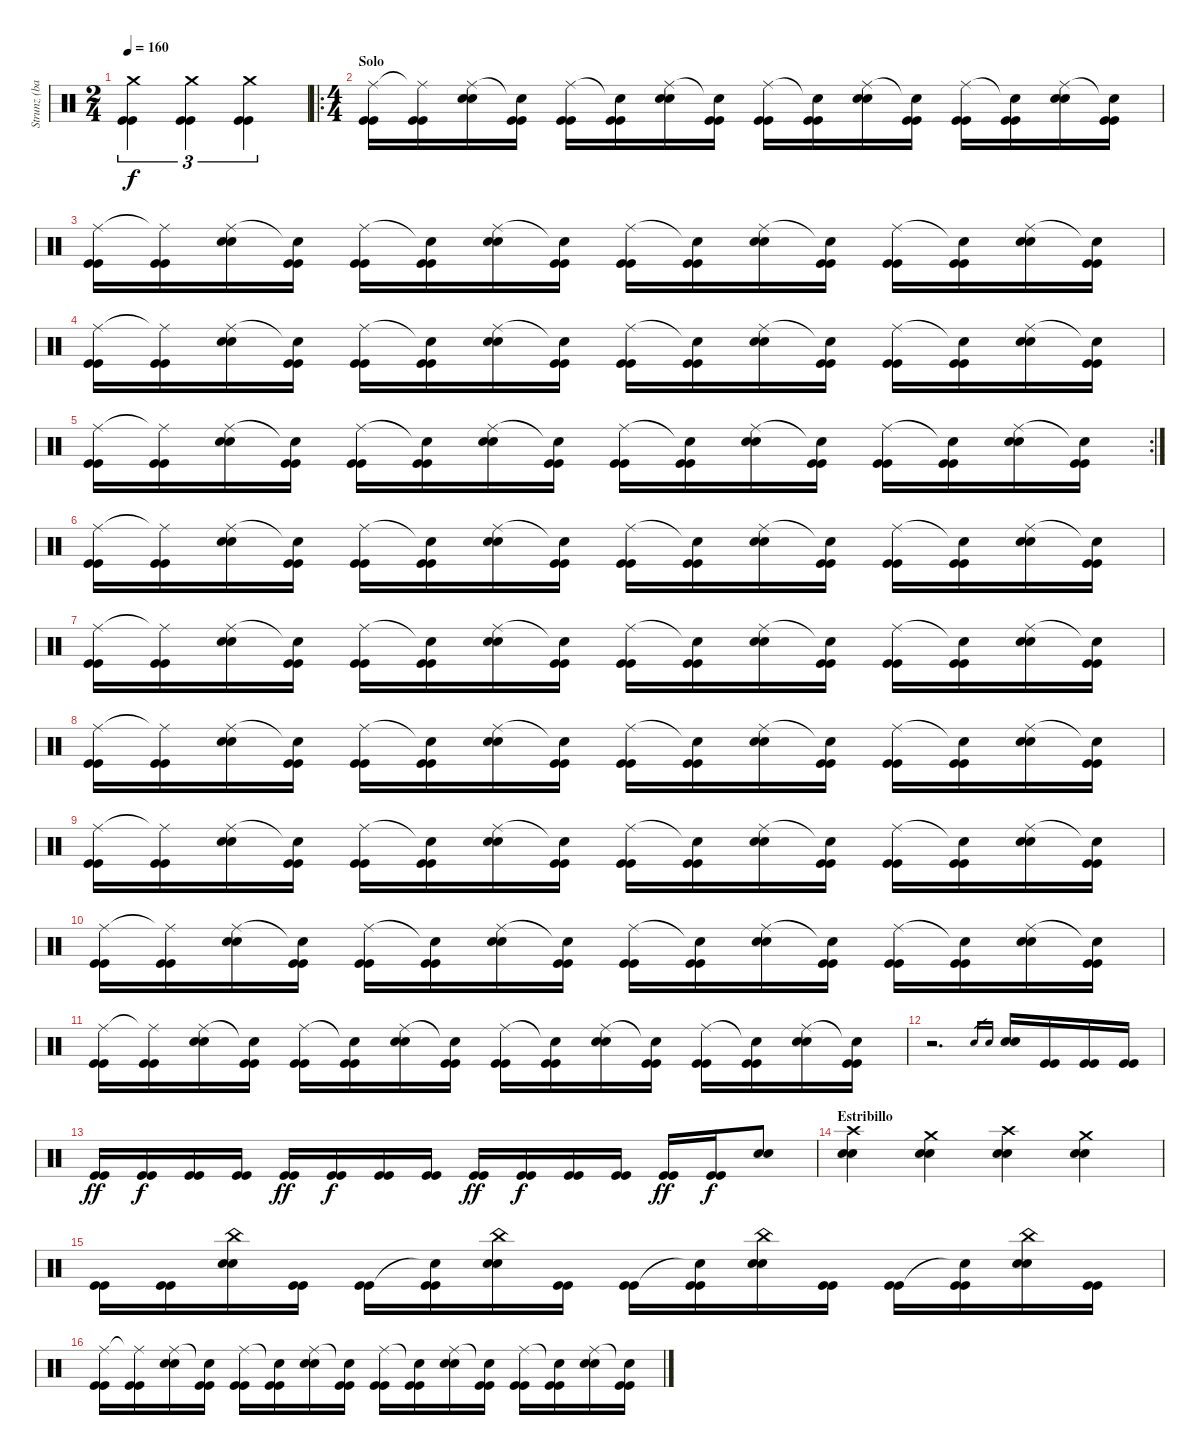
\track ("Strunz (bateria)" "Strunz (ba") {instrument percussion}
\staff {score}
\articulation defaults
\ts (2 4)
\tempo 160
\clef neutral
\ks c
("Crash medium (hit)" "Kick (hit)" "Kick (hit)").4{tu (3 2) dy f} ("Crash medium (hit)" "Kick (hit)" "Kick (hit)").4{tu (3 2)} ("Crash medium (hit)" "Kick (hit)" "Kick (hit)").4{tu (3 2)} |
\ro
\ts (4 4)
\section ("" "Solo")
("Ride (middle)" "Kick (hit)" "Kick (hit)").16 ("Ride (middle)"{t} "Kick (hit)" "Kick (hit)").16 ("Ride (middle)" "Snare (hit) 2" "Snare (hit) 2").16 ("Snare (hit)"{t} "Kick (hit)" "Kick (hit)").16 ("Ride (middle)" "Kick (hit)" "Kick (hit)").16 ("Snare (hit)"{t} "Kick (hit)" "Kick (hit)").16 ("Ride (middle)" "Snare (hit) 2" "Snare (hit) 2").16 ("Snare (hit)"{t} "Kick (hit)" "Kick (hit)").16 ("Ride (middle)" "Kick (hit)" "Kick (hit)").16 ("Snare (hit)"{t} "Kick (hit)" "Kick (hit)").16 ("Ride (middle)" "Snare (hit) 2" "Snare (hit) 2").16 ("Snare (hit)"{t} "Kick (hit)" "Kick (hit)").16 ("Ride (middle)" "Kick (hit)" "Kick (hit)").16 ("Snare (hit)"{t} "Kick (hit)" "Kick (hit)").16 ("Ride (middle)" "Snare (hit) 2" "Snare (hit) 2").16 ("Snare (hit)"{t} "Kick (hit)" "Kick (hit)").16 |
("Ride (middle)" "Kick (hit)" "Kick (hit)").16 ("Ride (middle)"{t} "Kick (hit)" "Kick (hit)").16 ("Ride (middle)" "Snare (hit) 2" "Snare (hit) 2").16 ("Snare (hit)"{t} "Kick (hit)" "Kick (hit)").16 ("Ride (middle)" "Kick (hit)" "Kick (hit)").16 ("Snare (hit)"{t} "Kick (hit)" "Kick (hit)").16 ("Ride (middle)" "Snare (hit) 2" "Snare (hit) 2").16 ("Snare (hit)"{t} "Kick (hit)" "Kick (hit)").16 ("Ride (middle)" "Kick (hit)" "Kick (hit)").16 ("Snare (hit)"{t} "Kick (hit)" "Kick (hit)").16 ("Ride (middle)" "Snare (hit) 2" "Snare (hit) 2").16 ("Snare (hit)"{t} "Kick (hit)" "Kick (hit)").16 ("Ride (middle)" "Kick (hit)" "Kick (hit)").16 ("Snare (hit)"{t} "Kick (hit)" "Kick (hit)").16 ("Ride (middle)" "Snare (hit) 2" "Snare (hit) 2").16 ("Snare (hit)"{t} "Kick (hit)" "Kick (hit)").16 |
("Ride (middle)" "Kick (hit)" "Kick (hit)").16 ("Ride (middle)"{t} "Kick (hit)" "Kick (hit)").16 ("Ride (middle)" "Snare (hit) 2" "Snare (hit) 2").16 ("Snare (hit)"{t} "Kick (hit)" "Kick (hit)").16 ("Ride (middle)" "Kick (hit)" "Kick (hit)").16 ("Snare (hit)"{t} "Kick (hit)" "Kick (hit)").16 ("Ride (middle)" "Snare (hit) 2" "Snare (hit) 2").16 ("Snare (hit)"{t} "Kick (hit)" "Kick (hit)").16 ("Ride (middle)" "Kick (hit)" "Kick (hit)").16 ("Snare (hit)"{t} "Kick (hit)" "Kick (hit)").16 ("Ride (middle)" "Snare (hit) 2" "Snare (hit) 2").16 ("Snare (hit)"{t} "Kick (hit)" "Kick (hit)").16 ("Ride (middle)" "Kick (hit)" "Kick (hit)").16 ("Snare (hit)"{t} "Kick (hit)" "Kick (hit)").16 ("Ride (middle)" "Snare (hit) 2" "Snare (hit) 2").16 ("Snare (hit)"{t} "Kick (hit)" "Kick (hit)").16 |
\rc 2
("Ride (middle)" "Kick (hit)" "Kick (hit)").16 ("Ride (middle)"{t} "Kick (hit)" "Kick (hit)").16 ("Ride (middle)" "Snare (hit) 2" "Snare (hit) 2").16 ("Snare (hit)"{t} "Kick (hit)" "Kick (hit)").16 ("Ride (middle)" "Kick (hit)" "Kick (hit)").16 ("Snare (hit)"{t} "Kick (hit)" "Kick (hit)").16 ("Ride (middle)" "Snare (hit) 2" "Snare (hit) 2").16 ("Snare (hit)"{t} "Kick (hit)" "Kick (hit)").16 ("Ride (middle)" "Kick (hit)" "Kick (hit)").16 ("Snare (hit)"{t} "Kick (hit)" "Kick (hit)").16 ("Ride (middle)" "Snare (hit) 2" "Snare (hit) 2").16 ("Snare (hit)"{t} "Kick (hit)" "Kick (hit)").16 ("Ride (middle)" "Kick (hit)" "Kick (hit)").16 ("Snare (hit)"{t} "Kick (hit)" "Kick (hit)").16 ("Ride (middle)" "Snare (hit) 2" "Snare (hit) 2").16 ("Snare (hit)"{t} "Kick (hit)" "Kick (hit)").16 |
("Ride (middle)" "Kick (hit)" "Kick (hit)").16 ("Ride (middle)"{t} "Kick (hit)" "Kick (hit)").16 ("Ride (middle)" "Snare (hit) 2" "Snare (hit) 2").16 ("Snare (hit)"{t} "Kick (hit)" "Kick (hit)").16 ("Ride (middle)" "Kick (hit)" "Kick (hit)").16 ("Snare (hit)"{t} "Kick (hit)" "Kick (hit)").16 ("Ride (middle)" "Snare (hit) 2" "Snare (hit) 2").16 ("Snare (hit)"{t} "Kick (hit)" "Kick (hit)").16 ("Ride (middle)" "Kick (hit)" "Kick (hit)").16 ("Snare (hit)"{t} "Kick (hit)" "Kick (hit)").16 ("Ride (middle)" "Snare (hit) 2" "Snare (hit) 2").16 ("Snare (hit)"{t} "Kick (hit)" "Kick (hit)").16 ("Ride (middle)" "Kick (hit)" "Kick (hit)").16 ("Snare (hit)"{t} "Kick (hit)" "Kick (hit)").16 ("Ride (middle)" "Snare (hit) 2" "Snare (hit) 2").16 ("Snare (hit)"{t} "Kick (hit)" "Kick (hit)").16 |
("Ride (middle)" "Kick (hit)" "Kick (hit)").16 ("Ride (middle)"{t} "Kick (hit)" "Kick (hit)").16 ("Ride (middle)" "Snare (hit) 2" "Snare (hit) 2").16 ("Snare (hit)"{t} "Kick (hit)" "Kick (hit)").16 ("Ride (middle)" "Kick (hit)" "Kick (hit)").16 ("Snare (hit)"{t} "Kick (hit)" "Kick (hit)").16 ("Ride (middle)" "Snare (hit) 2" "Snare (hit) 2").16 ("Snare (hit)"{t} "Kick (hit)" "Kick (hit)").16 ("Ride (middle)" "Kick (hit)" "Kick (hit)").16 ("Snare (hit)"{t} "Kick (hit)" "Kick (hit)").16 ("Ride (middle)" "Snare (hit) 2" "Snare (hit) 2").16 ("Snare (hit)"{t} "Kick (hit)" "Kick (hit)").16 ("Ride (middle)" "Kick (hit)" "Kick (hit)").16 ("Snare (hit)"{t} "Kick (hit)" "Kick (hit)").16 ("Ride (middle)" "Snare (hit) 2" "Snare (hit) 2").16 ("Snare (hit)"{t} "Kick (hit)" "Kick (hit)").16 |
("Ride (middle)" "Kick (hit)" "Kick (hit)").16 ("Ride (middle)"{t} "Kick (hit)" "Kick (hit)").16 ("Ride (middle)" "Snare (hit) 2" "Snare (hit) 2").16 ("Snare (hit)"{t} "Kick (hit)" "Kick (hit)").16 ("Ride (middle)" "Kick (hit)" "Kick (hit)").16 ("Snare (hit)"{t} "Kick (hit)" "Kick (hit)").16 ("Ride (middle)" "Snare (hit) 2" "Snare (hit) 2").16 ("Snare (hit)"{t} "Kick (hit)" "Kick (hit)").16 ("Ride (middle)" "Kick (hit)" "Kick (hit)").16 ("Snare (hit)"{t} "Kick (hit)" "Kick (hit)").16 ("Ride (middle)" "Snare (hit) 2" "Snare (hit) 2").16 ("Snare (hit)"{t} "Kick (hit)" "Kick (hit)").16 ("Ride (middle)" "Kick (hit)" "Kick (hit)").16 ("Snare (hit)"{t} "Kick (hit)" "Kick (hit)").16 ("Ride (middle)" "Snare (hit) 2" "Snare (hit) 2").16 ("Snare (hit)"{t} "Kick (hit)" "Kick (hit)").16 |
("Ride (middle)" "Kick (hit)" "Kick (hit)").16 ("Ride (middle)"{t} "Kick (hit)" "Kick (hit)").16 ("Ride (middle)" "Snare (hit) 2" "Snare (hit) 2").16 ("Snare (hit)"{t} "Kick (hit)" "Kick (hit)").16 ("Ride (middle)" "Kick (hit)" "Kick (hit)").16 ("Snare (hit)"{t} "Kick (hit)" "Kick (hit)").16 ("Ride (middle)" "Snare (hit) 2" "Snare (hit) 2").16 ("Snare (hit)"{t} "Kick (hit)" "Kick (hit)").16 ("Ride (middle)" "Kick (hit)" "Kick (hit)").16 ("Snare (hit)"{t} "Kick (hit)" "Kick (hit)").16 ("Ride (middle)" "Snare (hit) 2" "Snare (hit) 2").16 ("Snare (hit)"{t} "Kick (hit)" "Kick (hit)").16 ("Ride (middle)" "Kick (hit)" "Kick (hit)").16 ("Snare (hit)"{t} "Kick (hit)" "Kick (hit)").16 ("Ride (middle)" "Snare (hit) 2" "Snare (hit) 2").16 ("Snare (hit)"{t} "Kick (hit)" "Kick (hit)").16 |
("Ride (middle)" "Kick (hit)" "Kick (hit)").16 ("Ride (middle)"{t} "Kick (hit)" "Kick (hit)").16 ("Ride (middle)" "Snare (hit) 2" "Snare (hit) 2").16 ("Snare (hit)"{t} "Kick (hit)" "Kick (hit)").16 ("Ride (middle)" "Kick (hit)" "Kick (hit)").16 ("Snare (hit)"{t} "Kick (hit)" "Kick (hit)").16 ("Ride (middle)" "Snare (hit) 2" "Snare (hit) 2").16 ("Snare (hit)"{t} "Kick (hit)" "Kick (hit)").16 ("Ride (middle)" "Kick (hit)" "Kick (hit)").16 ("Snare (hit)"{t} "Kick (hit)" "Kick (hit)").16 ("Ride (middle)" "Snare (hit) 2" "Snare (hit) 2").16 ("Snare (hit)"{t} "Kick (hit)" "Kick (hit)").16 ("Ride (middle)" "Kick (hit)" "Kick (hit)").16 ("Snare (hit)"{t} "Kick (hit)" "Kick (hit)").16 ("Ride (middle)" "Snare (hit) 2" "Snare (hit) 2").16 ("Snare (hit)"{t} "Kick (hit)" "Kick (hit)").16 |
("Ride (middle)" "Kick (hit)" "Kick (hit)").16 ("Ride (middle)"{t} "Kick (hit)" "Kick (hit)").16 ("Ride (middle)" "Snare (hit) 2" "Snare (hit) 2").16 ("Snare (hit)"{t} "Kick (hit)" "Kick (hit)").16 ("Ride (middle)" "Kick (hit)" "Kick (hit)").16 ("Snare (hit)"{t} "Kick (hit)" "Kick (hit)").16 ("Ride (middle)" "Snare (hit) 2" "Snare (hit) 2").16 ("Snare (hit)"{t} "Kick (hit)" "Kick (hit)").16 ("Ride (middle)" "Kick (hit)" "Kick (hit)").16 ("Snare (hit)"{t} "Kick (hit)" "Kick (hit)").16 ("Ride (middle)" "Snare (hit) 2" "Snare (hit) 2").16 ("Snare (hit)"{t} "Kick (hit)" "Kick (hit)").16 ("Ride (middle)" "Kick (hit)" "Kick (hit)").16 ("Snare (hit)"{t} "Kick (hit)" "Kick (hit)").16 ("Ride (middle)" "Snare (hit) 2" "Snare (hit) 2").16 ("Snare (hit)"{t} "Kick (hit)" "Kick (hit)").16 |
r.2{d} "Snare (hit) 2".16{gr} "Snare (hit) 2".16{gr} ("Electric Snare (hit)" "Electric Snare (hit)").16 ("Kick (hit)" "Kick (hit)").16 ("Kick (hit)" "Kick (hit)").16 ("Kick (hit)" "Kick (hit)").16 |
("Kick (hit)" "Kick (hit)").16{dy ff} ("Kick (hit)" "Kick (hit)").16{dy f} ("Kick (hit)" "Kick (hit)").16 ("Kick (hit)" "Kick (hit)").16 ("Kick (hit)" "Kick (hit)").16{dy ff} ("Kick (hit)" "Kick (hit)").16{dy f} ("Kick (hit)" "Kick (hit)").16 ("Kick (hit)" "Kick (hit)").16 ("Kick (hit)" "Kick (hit)").16{dy ff} ("Kick (hit)" "Kick (hit)").16{dy f} ("Kick (hit)" "Kick (hit)").16 ("Kick (hit)" "Kick (hit)").16 ("Kick (hit)" "Kick (hit)").16{dy ff} ("Kick (hit)" "Kick (hit)").16{dy f} ("Snare (hit) 2" "Snare (hit) 2").8 |
\section ("" "Estribillo")
("Crash high (hit)" "Snare (hit) 2" "Snare (hit) 2").4 ("Crash medium (hit)" "Snare (hit) 2" "Snare (hit) 2").4 ("Crash high (hit)" "Snare (hit) 2" "Snare (hit) 2").4 ("Crash medium (hit)" "Snare (hit) 2" "Snare (hit) 2").4 |
("Kick (hit)" "Kick (hit)").16 ("Kick (hit)" "Kick (hit)").16 ("China (hit)" "Snare (hit) 2" "Snare (hit) 2").16 ("Kick (hit)" "Kick (hit)").16 ("Kick (hit)" "Kick (hit)").16 ("Snare (hit)"{t} "Kick (hit)" "Kick (hit)").16 ("China (hit)" "Snare (hit) 2" "Snare (hit) 2").16 ("Kick (hit)" "Kick (hit)").16 ("Kick (hit)" "Kick (hit)").16 ("Snare (hit)"{t} "Kick (hit)" "Kick (hit)").16 ("China (hit)" "Snare (hit) 2" "Snare (hit) 2").16 ("Kick (hit)" "Kick (hit)").16 ("Kick (hit)" "Kick (hit)").16 ("Snare (hit)"{t} "Kick (hit)" "Kick (hit)").16 ("China (hit)" "Snare (hit) 2" "Snare (hit) 2").16 ("Kick (hit)" "Kick (hit)").16 |
("Ride (middle)" "Kick (hit)" "Kick (hit)").16 ("Ride (middle)"{t} "Kick (hit)" "Kick (hit)").16 ("Ride (middle)" "Snare (hit) 2" "Snare (hit) 2").16 ("Snare (hit)"{t} "Kick (hit)" "Kick (hit)").16 ("Ride (middle)" "Kick (hit)" "Kick (hit)").16 ("Snare (hit)"{t} "Kick (hit)" "Kick (hit)").16 ("Ride (middle)" "Snare (hit) 2" "Snare (hit) 2").16 ("Snare (hit)"{t} "Kick (hit)" "Kick (hit)").16 ("Ride (middle)" "Kick (hit)" "Kick (hit)").16 ("Snare (hit)"{t} "Kick (hit)" "Kick (hit)").16 ("Ride (middle)" "Snare (hit) 2" "Snare (hit) 2").16 ("Snare (hit)"{t} "Kick (hit)" "Kick (hit)").16 ("Ride (middle)" "Kick (hit)" "Kick (hit)").16 ("Snare (hit)"{t} "Kick (hit)" "Kick (hit)").16 ("Ride (middle)" "Snare (hit) 2" "Snare (hit) 2").16 ("Snare (hit)"{t} "Kick (hit)" "Kick (hit)").16
